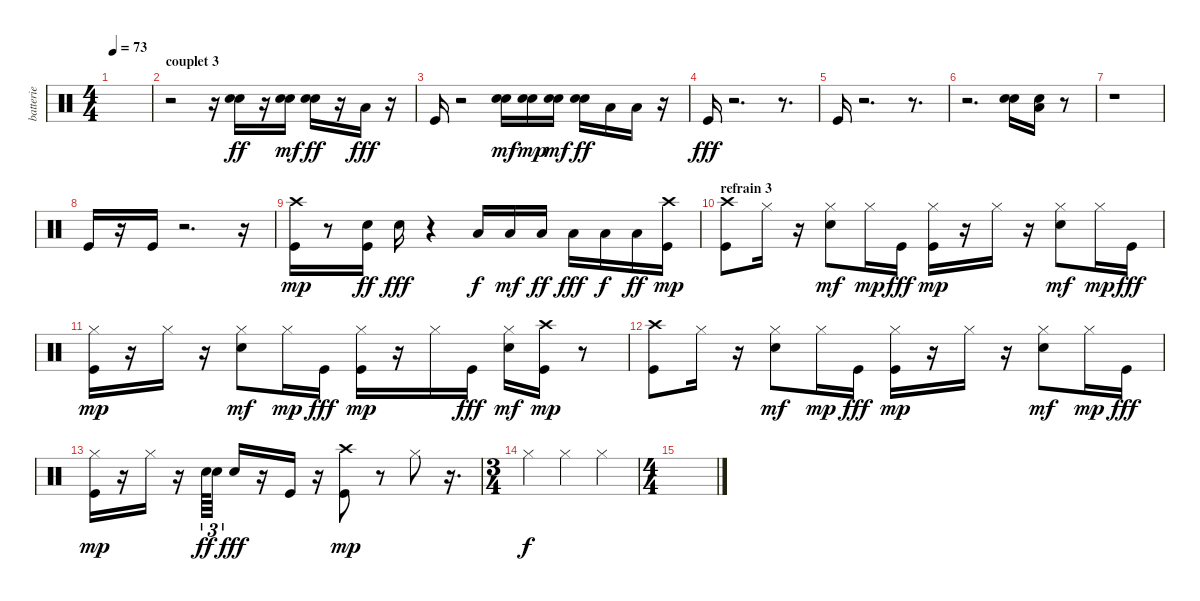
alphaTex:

\track ("batterie" "batterie") {instrument percussion}
\staff {score}
\articulation defaults
\ts (4 4)
\tempo 73
\clef neutral
\ks c
|
\section ("" "couplet 3")
r.2 r.16 ("Snare (hit) 2" "Electric Snare (hit)").16{dy ff} r.16 ("Snare (hit) 2" "Electric Snare (hit)").16{dy mf} ("Snare (hit) 2" "Electric Snare (hit)").16{dy ff} r.16 "Low Floor Tom (hit)".16{dy fff} r.16 |
"Kick (hit)".16 r.2 ("Snare (hit) 2" "Electric Snare (hit)").16{dy mf} ("Snare (hit) 2" "Electric Snare (hit)").16{dy mp} ("Snare (hit) 2" "Electric Snare (hit)").16{dy mf} ("Snare (hit) 2" "Electric Snare (hit)").16{dy ff} "Low Floor Tom (hit)".16 "Low Floor Tom (hit)".16 r.16 |
"Kick (hit)".16{dy fff} r.2{d} r.8{d} |
"Kick (hit)".16 r.2{d} r.8{d} |
r.2{d} ("Snare (hit) 2" "Electric Snare (hit)").16 ("Electric Snare (hit)" "Low Floor Tom (hit)").16 r.8 |
r.1 |
"Kick (hit)".16 r.16 "Kick (hit)".16 r.2{d} r.16 |
("Kick (hit)" "Crash high (hit)").16{dy mp} r.8 ("Kick (hit)" "Snare (hit) 2").16{dy ff} "Snare (hit) 2".16{dy fff} r.4 "Low Floor Tom (hit)".16{dy f} "Low Floor Tom (hit)".16{dy mf} "Low Floor Tom (hit)".16{dy ff} "Low Floor Tom (hit)".16{dy fff} "Low Floor Tom (hit)".16{dy f} "Low Floor Tom (hit)".16{dy ff} ("Kick (hit)" "Crash high (hit)").16{dy mp} |
\section ("" "refrain 3")
("Kick (hit)" "Crash high (hit)").8 "Hi-Hat (closed)".16 r.16 ("Snare (hit) 2" "Hi-Hat (closed)").8{dy mf} "Hi-Hat (closed)".16{dy mp} "Kick (hit)".16{dy fff} ("Kick (hit)" "Hi-Hat (closed)").16{dy mp} r.16 "Hi-Hat (closed)".16 r.16 ("Snare (hit) 2" "Hi-Hat (closed)").8{dy mf} "Hi-Hat (closed)".16{dy mp} "Kick (hit)".16{dy fff} |
("Kick (hit)" "Hi-Hat (closed)").16{dy mp} r.16 "Hi-Hat (closed)".16 r.16 ("Snare (hit) 2" "Hi-Hat (closed)").8{dy mf} "Hi-Hat (closed)".16{dy mp} "Kick (hit)".16{dy fff} ("Kick (hit)" "Hi-Hat (closed)").16{dy mp} r.16 "Hi-Hat (closed)".16 "Kick (hit)".16{dy fff} ("Snare (hit) 2" "Hi-Hat (closed)").16{dy mf} ("Kick (hit)" "Crash high (hit)").16{dy mp} r.8 |
("Kick (hit)" "Crash high (hit)").8 "Hi-Hat (closed)".16 r.16 ("Snare (hit) 2" "Hi-Hat (closed)").8{dy mf} "Hi-Hat (closed)".16{dy mp} "Kick (hit)".16{dy fff} ("Kick (hit)" "Hi-Hat (closed)").16{dy mp} r.16 "Hi-Hat (closed)".16 r.16 ("Snare (hit) 2" "Hi-Hat (closed)").8{dy mf} "Hi-Hat (closed)".16{dy mp} "Kick (hit)".16{dy fff} |
("Kick (hit)" "Hi-Hat (closed)").16{dy mp} r.16 "Hi-Hat (closed)".16 r.16 "Snare (hit) 2".64{tu (3 2) dy ff} "Snare (hit) 2".32{tu (3 2)} "Snare (hit) 2".16{dy fff} r.16 "Kick (hit)".16 r.16 ("Kick (hit)" "Crash high (hit)").8{dy mp} r.8 "Hi-Hat (closed)".8 r.16{d} |
\ts (3 4)
"Hi-Hat (closed)".4{dy f} "Hi-Hat (closed)".4 "Hi-Hat (closed)".4 |
\ts (4 4)
